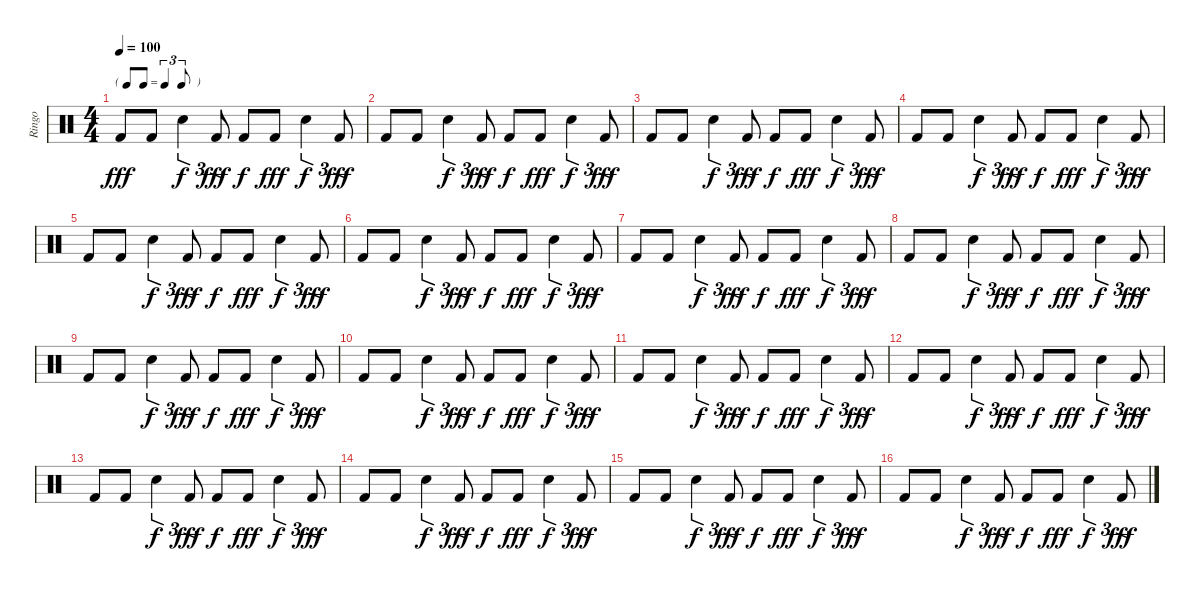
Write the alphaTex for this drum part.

\track ("Ringo" "Ringo") {instrument percussion}
\staff {score}
\articulation defaults
\ts (4 4)
\tf triplet8th
\tempo 100
\clef neutral
\ks c "Kick (hit) 2".8{dy fff} "Kick (hit) 2".8 "Snare (hit) 2".4{tu (3 2) dy f} "Kick (hit) 2".8{tu (3 2) dy fff} "Kick (hit) 2".8{dy f} "Kick (hit) 2".8{dy fff} "Snare (hit) 2".4{tu (3 2) dy f} "Kick (hit) 2".8{tu (3 2) dy fff}
|
"Kick (hit) 2".8 "Kick (hit) 2".8 "Snare (hit) 2".4{tu (3 2) dy f} "Kick (hit) 2".8{tu (3 2) dy fff} "Kick (hit) 2".8{dy f} "Kick (hit) 2".8{dy fff} "Snare (hit) 2".4{tu (3 2) dy f} "Kick (hit) 2".8{tu (3 2) dy fff} |
"Kick (hit) 2".8 "Kick (hit) 2".8 "Snare (hit) 2".4{tu (3 2) dy f} "Kick (hit) 2".8{tu (3 2) dy fff} "Kick (hit) 2".8{dy f} "Kick (hit) 2".8{dy fff} "Snare (hit) 2".4{tu (3 2) dy f} "Kick (hit) 2".8{tu (3 2) dy fff} |
"Kick (hit) 2".8 "Kick (hit) 2".8 "Snare (hit) 2".4{tu (3 2) dy f} "Kick (hit) 2".8{tu (3 2) dy fff} "Kick (hit) 2".8{dy f} "Kick (hit) 2".8{dy fff} "Snare (hit) 2".4{tu (3 2) dy f} "Kick (hit) 2".8{tu (3 2) dy fff} |
"Kick (hit) 2".8 "Kick (hit) 2".8 "Snare (hit) 2".4{tu (3 2) dy f} "Kick (hit) 2".8{tu (3 2) dy fff} "Kick (hit) 2".8{dy f} "Kick (hit) 2".8{dy fff} "Snare (hit) 2".4{tu (3 2) dy f} "Kick (hit) 2".8{tu (3 2) dy fff} |
"Kick (hit) 2".8 "Kick (hit) 2".8 "Snare (hit) 2".4{tu (3 2) dy f} "Kick (hit) 2".8{tu (3 2) dy fff} "Kick (hit) 2".8{dy f} "Kick (hit) 2".8{dy fff} "Snare (hit) 2".4{tu (3 2) dy f} "Kick (hit) 2".8{tu (3 2) dy fff} |
"Kick (hit) 2".8 "Kick (hit) 2".8 "Snare (hit) 2".4{tu (3 2) dy f} "Kick (hit) 2".8{tu (3 2) dy fff} "Kick (hit) 2".8{dy f} "Kick (hit) 2".8{dy fff} "Snare (hit) 2".4{tu (3 2) dy f} "Kick (hit) 2".8{tu (3 2) dy fff} |
"Kick (hit) 2".8 "Kick (hit) 2".8 "Snare (hit) 2".4{tu (3 2) dy f} "Kick (hit) 2".8{tu (3 2) dy fff} "Kick (hit) 2".8{dy f} "Kick (hit) 2".8{dy fff} "Snare (hit) 2".4{tu (3 2) dy f} "Kick (hit) 2".8{tu (3 2) dy fff} |
"Kick (hit) 2".8 "Kick (hit) 2".8 "Snare (hit) 2".4{tu (3 2) dy f} "Kick (hit) 2".8{tu (3 2) dy fff} "Kick (hit) 2".8{dy f} "Kick (hit) 2".8{dy fff} "Snare (hit) 2".4{tu (3 2) dy f} "Kick (hit) 2".8{tu (3 2) dy fff} |
"Kick (hit) 2".8 "Kick (hit) 2".8 "Snare (hit) 2".4{tu (3 2) dy f} "Kick (hit) 2".8{tu (3 2) dy fff} "Kick (hit) 2".8{dy f} "Kick (hit) 2".8{dy fff} "Snare (hit) 2".4{tu (3 2) dy f} "Kick (hit) 2".8{tu (3 2) dy fff} |
"Kick (hit) 2".8 "Kick (hit) 2".8 "Snare (hit) 2".4{tu (3 2) dy f} "Kick (hit) 2".8{tu (3 2) dy fff} "Kick (hit) 2".8{dy f} "Kick (hit) 2".8{dy fff} "Snare (hit) 2".4{tu (3 2) dy f} "Kick (hit) 2".8{tu (3 2) dy fff} |
"Kick (hit) 2".8 "Kick (hit) 2".8 "Snare (hit) 2".4{tu (3 2) dy f} "Kick (hit) 2".8{tu (3 2) dy fff} "Kick (hit) 2".8{dy f} "Kick (hit) 2".8{dy fff} "Snare (hit) 2".4{tu (3 2) dy f} "Kick (hit) 2".8{tu (3 2) dy fff} |
"Kick (hit) 2".8 "Kick (hit) 2".8 "Snare (hit) 2".4{tu (3 2) dy f} "Kick (hit) 2".8{tu (3 2) dy fff} "Kick (hit) 2".8{dy f} "Kick (hit) 2".8{dy fff} "Snare (hit) 2".4{tu (3 2) dy f} "Kick (hit) 2".8{tu (3 2) dy fff} |
"Kick (hit) 2".8 "Kick (hit) 2".8 "Snare (hit) 2".4{tu (3 2) dy f} "Kick (hit) 2".8{tu (3 2) dy fff} "Kick (hit) 2".8{dy f} "Kick (hit) 2".8{dy fff} "Snare (hit) 2".4{tu (3 2) dy f} "Kick (hit) 2".8{tu (3 2) dy fff} |
"Kick (hit) 2".8 "Kick (hit) 2".8 "Snare (hit) 2".4{tu (3 2) dy f} "Kick (hit) 2".8{tu (3 2) dy fff} "Kick (hit) 2".8{dy f} "Kick (hit) 2".8{dy fff} "Snare (hit) 2".4{tu (3 2) dy f} "Kick (hit) 2".8{tu (3 2) dy fff} |
"Kick (hit) 2".8 "Kick (hit) 2".8 "Snare (hit) 2".4{tu (3 2) dy f} "Kick (hit) 2".8{tu (3 2) dy fff} "Kick (hit) 2".8{dy f} "Kick (hit) 2".8{dy fff} "Snare (hit) 2".4{tu (3 2) dy f} "Kick (hit) 2".8{tu (3 2) dy fff}
